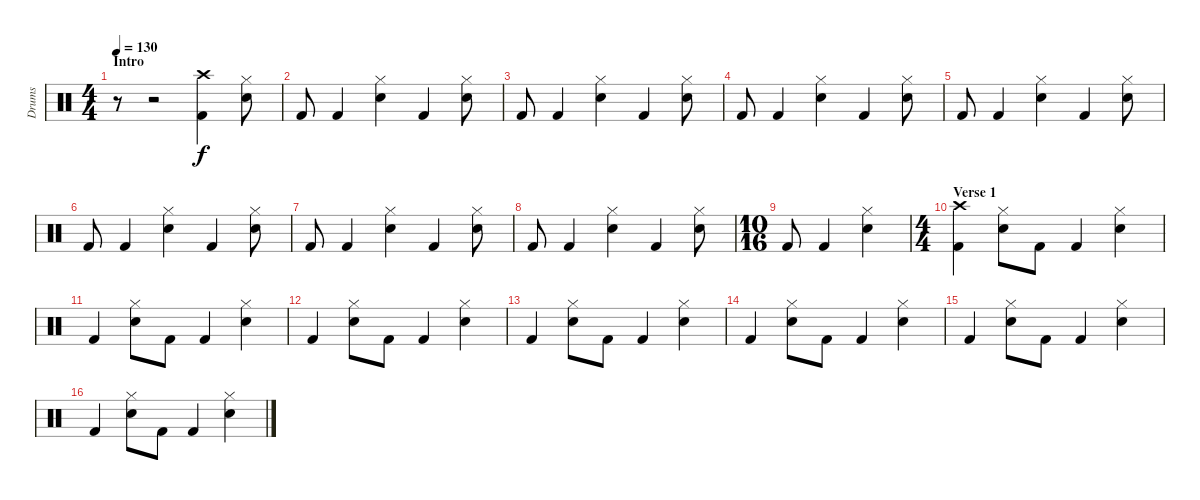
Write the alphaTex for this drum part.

\track ("Drums" "Drums") {instrument percussion}
\staff {score}
\articulation defaults
\ts (4 4)
\section ("" "Intro")
\tempo 130
\clef neutral
\ks c
r.8{dy f} r.2 ("Crash high (hit)" "Kick (hit) 2").4 ("Snare (hit) 2" "Hi-Hat (closed)").8 |
"Kick (hit) 2".8 "Kick (hit) 2".4 ("Hi-Hat (closed)" "Snare (hit) 2").4 "Kick (hit) 2".4 ("Hi-Hat (closed)" "Snare (hit) 2").8 |
"Kick (hit) 2".8 "Kick (hit) 2".4 ("Hi-Hat (closed)" "Snare (hit) 2").4 "Kick (hit) 2".4 ("Hi-Hat (closed)" "Snare (hit) 2").8 |
"Kick (hit) 2".8 "Kick (hit) 2".4 ("Hi-Hat (closed)" "Snare (hit) 2").4 "Kick (hit) 2".4 ("Hi-Hat (closed)" "Snare (hit) 2").8 |
"Kick (hit) 2".8 "Kick (hit) 2".4 ("Hi-Hat (closed)" "Snare (hit) 2").4 "Kick (hit) 2".4 ("Hi-Hat (closed)" "Snare (hit) 2").8 |
"Kick (hit) 2".8 "Kick (hit) 2".4 ("Hi-Hat (closed)" "Snare (hit) 2").4 "Kick (hit) 2".4 ("Hi-Hat (closed)" "Snare (hit) 2").8 |
"Kick (hit) 2".8 "Kick (hit) 2".4 ("Hi-Hat (closed)" "Snare (hit) 2").4 "Kick (hit) 2".4 ("Hi-Hat (closed)" "Snare (hit) 2").8 |
"Kick (hit) 2".8 "Kick (hit) 2".4 ("Hi-Hat (closed)" "Snare (hit) 2").4 "Kick (hit) 2".4 ("Hi-Hat (closed)" "Snare (hit) 2").8 |
\ts (10 16)
"Kick (hit) 2".8 "Kick (hit) 2".4 ("Hi-Hat (closed)" "Snare (hit) 2").4 |
\ts (4 4)
\section ("" "Verse 1")
("Crash high (hit)" "Kick (hit) 2").4 ("Hi-Hat (closed)" "Snare (hit) 2").8 "Kick (hit) 2".8 "Kick (hit) 2".4 ("Hi-Hat (closed)" "Snare (hit) 2").4 |
"Kick (hit) 2".4 ("Hi-Hat (closed)" "Snare (hit) 2").8 "Kick (hit) 2".8 "Kick (hit) 2".4 ("Hi-Hat (closed)" "Snare (hit) 2").4 |
"Kick (hit) 2".4 ("Hi-Hat (closed)" "Snare (hit) 2").8 "Kick (hit) 2".8 "Kick (hit) 2".4 ("Hi-Hat (closed)" "Snare (hit) 2").4 |
"Kick (hit) 2".4 ("Hi-Hat (closed)" "Snare (hit) 2").8 "Kick (hit) 2".8 "Kick (hit) 2".4 ("Hi-Hat (closed)" "Snare (hit) 2").4 |
"Kick (hit) 2".4 ("Hi-Hat (closed)" "Snare (hit) 2").8 "Kick (hit) 2".8 "Kick (hit) 2".4 ("Hi-Hat (closed)" "Snare (hit) 2").4 |
"Kick (hit) 2".4 ("Hi-Hat (closed)" "Snare (hit) 2").8 "Kick (hit) 2".8 "Kick (hit) 2".4 ("Hi-Hat (closed)" "Snare (hit) 2").4 |
"Kick (hit) 2".4 ("Hi-Hat (closed)" "Snare (hit) 2").8 "Kick (hit) 2".8 "Kick (hit) 2".4 ("Hi-Hat (closed)" "Snare (hit) 2").4
